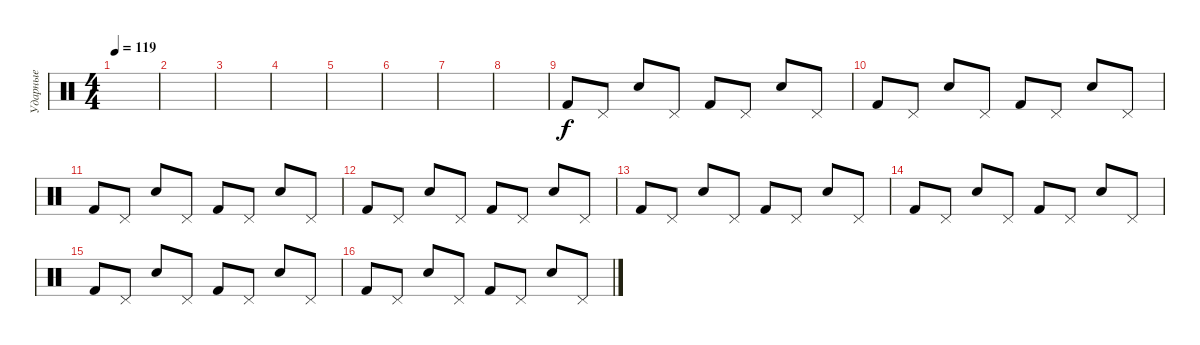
\track ("Ударные" "Ударные") {instrument percussion}
\staff {score}
\articulation defaults
\ts (4 4)
\tempo 119
\clef neutral
\ks c
|
|
|
|
|
|
|
|
"Kick (hit) 2".8 "Pedal Hi-Hat (hit)".8 "Electric Snare (hit)".8 "Pedal Hi-Hat (hit)".8 "Kick (hit) 2".8 "Pedal Hi-Hat (hit)".8 "Electric Snare (hit)".8 "Pedal Hi-Hat (hit)".8 |
"Kick (hit) 2".8 "Pedal Hi-Hat (hit)".8 "Electric Snare (hit)".8 "Pedal Hi-Hat (hit)".8 "Kick (hit) 2".8 "Pedal Hi-Hat (hit)".8 "Electric Snare (hit)".8 "Pedal Hi-Hat (hit)".8 |
"Kick (hit) 2".8 "Pedal Hi-Hat (hit)".8 "Electric Snare (hit)".8 "Pedal Hi-Hat (hit)".8 "Kick (hit) 2".8 "Pedal Hi-Hat (hit)".8 "Electric Snare (hit)".8 "Pedal Hi-Hat (hit)".8 |
"Kick (hit) 2".8 "Pedal Hi-Hat (hit)".8 "Electric Snare (hit)".8 "Pedal Hi-Hat (hit)".8 "Kick (hit) 2".8 "Pedal Hi-Hat (hit)".8 "Electric Snare (hit)".8 "Pedal Hi-Hat (hit)".8 |
"Kick (hit) 2".8 "Pedal Hi-Hat (hit)".8 "Electric Snare (hit)".8 "Pedal Hi-Hat (hit)".8 "Kick (hit) 2".8 "Pedal Hi-Hat (hit)".8 "Electric Snare (hit)".8 "Pedal Hi-Hat (hit)".8 |
"Kick (hit) 2".8 "Pedal Hi-Hat (hit)".8 "Electric Snare (hit)".8 "Pedal Hi-Hat (hit)".8 "Kick (hit) 2".8 "Pedal Hi-Hat (hit)".8 "Electric Snare (hit)".8 "Pedal Hi-Hat (hit)".8 |
"Kick (hit) 2".8 "Pedal Hi-Hat (hit)".8 "Electric Snare (hit)".8 "Pedal Hi-Hat (hit)".8 "Kick (hit) 2".8 "Pedal Hi-Hat (hit)".8 "Electric Snare (hit)".8 "Pedal Hi-Hat (hit)".8 |
"Kick (hit) 2".8 "Pedal Hi-Hat (hit)".8 "Electric Snare (hit)".8 "Pedal Hi-Hat (hit)".8 "Kick (hit) 2".8 "Pedal Hi-Hat (hit)".8 "Electric Snare (hit)".8 "Pedal Hi-Hat (hit)".8
